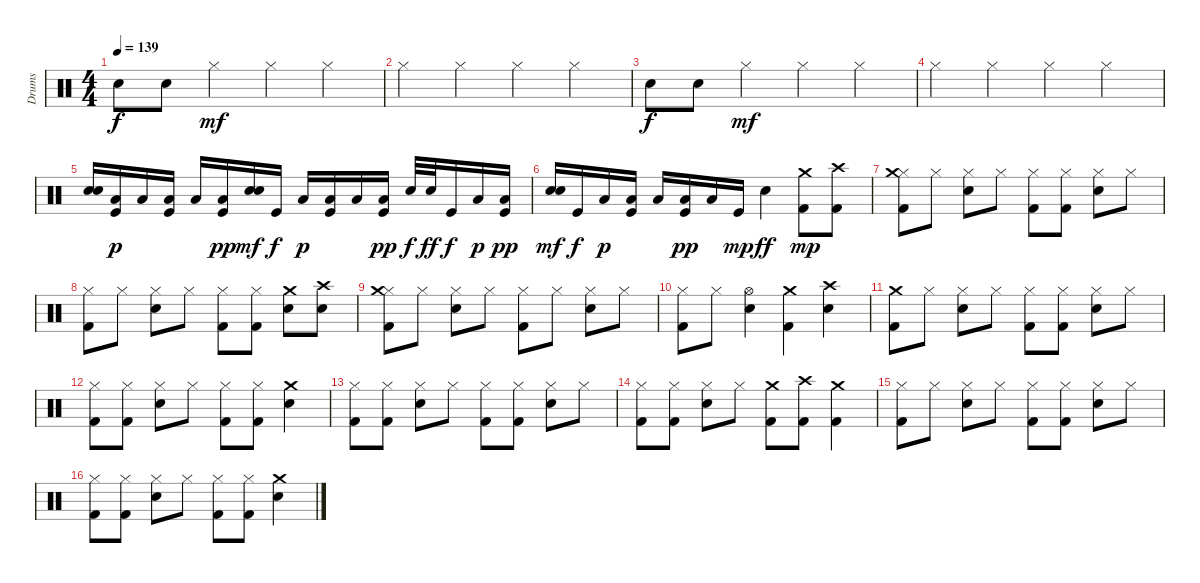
\track ("Drums" "Drums") {instrument percussion}
\staff {score}
\articulation defaults
\ts (4 4)
\tempo 139
\clef neutral
\ks c "Electric Snare (hit)".8{dy f} "Electric Snare (hit)".8 "Hi-Hat (closed)".4{dy mf} "Hi-Hat (closed)".4 "Hi-Hat (closed)".4
|
"Hi-Hat (closed)".4 "Hi-Hat (closed)".4 "Hi-Hat (closed)".4 "Hi-Hat (closed)".4 |
"Electric Snare (hit)".8{dy f} "Electric Snare (hit)".8 "Hi-Hat (closed)".4{dy mf} "Hi-Hat (closed)".4 "Hi-Hat (closed)".4 |
"Hi-Hat (closed)".4 "Hi-Hat (closed)".4 "Hi-Hat (closed)".4 "Hi-Hat (closed)".4 |
("Electric Snare (hit)" "Electric Snare (hit)").16 ("Low Floor Tom (hit)" "Kick (hit)").16{dy p} "Low Floor Tom (hit)".16 ("Low Floor Tom (hit)" "Kick (hit)").16 "Low Floor Tom (hit)".16 ("Low Floor Tom (hit)" "Kick (hit)").16{dy pp} ("Electric Snare (hit)" "Electric Snare (hit)").16{dy mf} "Kick (hit)".16{dy f} "Low Floor Tom (hit)".16{dy p} ("Low Floor Tom (hit)" "Kick (hit)").16 "Low Floor Tom (hit)".16 ("Low Floor Tom (hit)" "Kick (hit)").16{dy pp} "Electric Snare (hit)".32{dy f} "Electric Snare (hit)".32{dy ff} "Kick (hit)".16{dy f} "Low Floor Tom (hit)".16{dy p} ("Low Floor Tom (hit)" "Kick (hit)").16{dy pp} |
("Electric Snare (hit)" "Electric Snare (hit)").16{dy mf} "Kick (hit)".16{dy f} "Low Floor Tom (hit)".16{dy p} ("Low Floor Tom (hit)" "Kick (hit)").16 "Low Floor Tom (hit)".16 ("Low Floor Tom (hit)" "Kick (hit)").16{dy pp} "Low Floor Tom (hit)".16 "Kick (hit)".16{dy mp} "Electric Snare (hit)".4{dy ff} ("Kick (hit) 2" "Crash medium (hit)").8{dy mp} ("Kick (hit) 2" "Crash high (hit)").8 |
("Kick (hit) 2" "Hi-Hat (closed)" "Crash medium (hit)").8 "Hi-Hat (closed)".8 ("Hi-Hat (closed)" "Electric Snare (hit)").8 "Hi-Hat (closed)".8 ("Kick (hit) 2" "Hi-Hat (closed)").8 ("Kick (hit) 2" "Hi-Hat (closed)").8 ("Hi-Hat (closed)" "Electric Snare (hit)").8 "Hi-Hat (closed)".8 |
("Kick (hit) 2" "Hi-Hat (closed)").8 "Hi-Hat (closed)".8 ("Hi-Hat (closed)" "Electric Snare (hit)").8 "Hi-Hat (closed)".8 ("Kick (hit) 2" "Hi-Hat (closed)").8 ("Kick (hit) 2" "Hi-Hat (closed)").8 ("Crash medium (hit)" "Electric Snare (hit)").8 ("Crash high (hit)" "Electric Snare (hit)").8 |
("Kick (hit) 2" "Hi-Hat (closed)" "Crash medium (hit)").8 "Hi-Hat (closed)".8 ("Hi-Hat (closed)" "Electric Snare (hit)").8 "Hi-Hat (closed)".8 ("Kick (hit) 2" "Hi-Hat (closed)").8 "Hi-Hat (closed)".8 ("Hi-Hat (closed)" "Electric Snare (hit)").8 "Hi-Hat (closed)".8 |
("Kick (hit) 2" "Hi-Hat (closed)").8 "Hi-Hat (closed)".8 ("Hi-Hat (open)" "Electric Snare (hit)").4 ("Kick (hit) 2" "Crash medium (hit)").4 ("Crash high (hit)" "Electric Snare (hit)").4 |
("Kick (hit) 2" "Crash medium (hit)").8 "Hi-Hat (closed)".8 ("Hi-Hat (closed)" "Electric Snare (hit)").8 "Hi-Hat (closed)".8 ("Kick (hit) 2" "Hi-Hat (closed)").8 ("Kick (hit) 2" "Hi-Hat (closed)").8 ("Hi-Hat (closed)" "Electric Snare (hit)").8 "Hi-Hat (closed)".8 |
("Kick (hit) 2" "Hi-Hat (closed)").8 ("Kick (hit) 2" "Hi-Hat (closed)").8 ("Hi-Hat (closed)" "Electric Snare (hit)").8 "Hi-Hat (closed)".8 ("Kick (hit) 2" "Hi-Hat (closed)").8 ("Kick (hit) 2" "Hi-Hat (closed)").8 ("Crash medium (hit)" "Electric Snare (hit)").4 |
("Kick (hit) 2" "Hi-Hat (closed)").8 ("Kick (hit) 2" "Hi-Hat (closed)").8 ("Hi-Hat (closed)" "Electric Snare (hit)").8 "Hi-Hat (closed)".8 ("Kick (hit) 2" "Hi-Hat (closed)").8 ("Kick (hit) 2" "Hi-Hat (closed)").8 ("Hi-Hat (closed)" "Electric Snare (hit)").8 "Hi-Hat (closed)".8 |
("Kick (hit) 2" "Hi-Hat (closed)").8 ("Kick (hit) 2" "Hi-Hat (closed)").8 ("Hi-Hat (closed)" "Electric Snare (hit)").8 "Hi-Hat (closed)".8 ("Kick (hit) 2" "Crash medium (hit)").8 ("Kick (hit) 2" "Crash high (hit)").8 ("Kick (hit) 2" "Crash medium (hit)").4 |
("Kick (hit) 2" "Hi-Hat (closed)").8 "Hi-Hat (closed)".8 ("Hi-Hat (closed)" "Electric Snare (hit)").8 "Hi-Hat (closed)".8 ("Kick (hit) 2" "Hi-Hat (closed)").8 ("Kick (hit) 2" "Hi-Hat (closed)").8 ("Hi-Hat (closed)" "Electric Snare (hit)").8 "Hi-Hat (closed)".8 |
("Kick (hit) 2" "Hi-Hat (closed)").8 ("Kick (hit) 2" "Hi-Hat (closed)").8 ("Hi-Hat (closed)" "Electric Snare (hit)").8 "Hi-Hat (closed)".8 ("Kick (hit) 2" "Hi-Hat (closed)").8 ("Kick (hit) 2" "Hi-Hat (closed)").8 ("Crash medium (hit)" "Electric Snare (hit)").4
